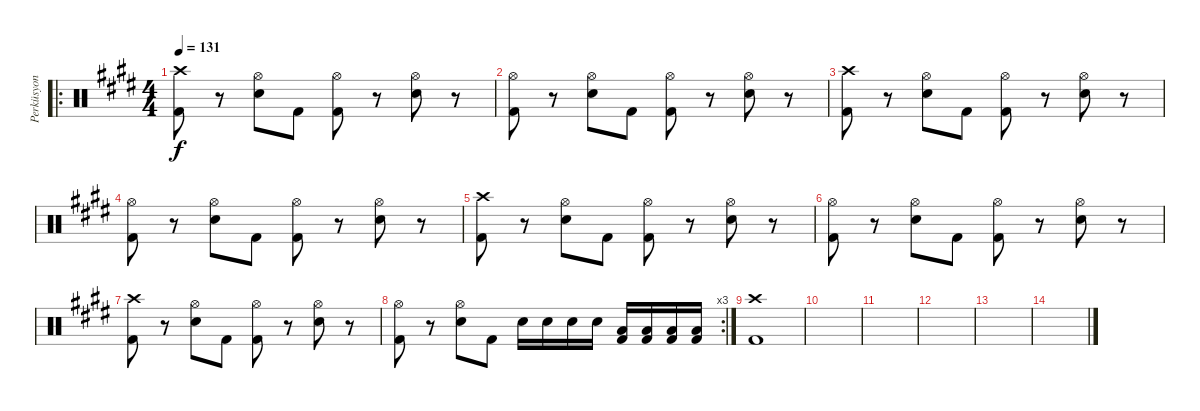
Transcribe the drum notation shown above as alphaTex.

\track ("Perküsyon" "Perküsyon") {instrument percussion}
\staff {score}
\articulation defaults
\ro
\ts (4 4)
\tempo 131
\clef neutral
\ks e
("Crash high (hit)" "Kick (hit) 2").8{dy f} r.8 ("Hi-Hat (open)" "Snare (hit) 2").8 "Kick (hit) 2".8 ("Hi-Hat (open)" "Kick (hit) 2").8 r.8 ("Hi-Hat (open)" "Snare (hit) 2").8 r.8 |
\ks c#minor
("Hi-Hat (open)" "Kick (hit) 2").8 r.8 ("Hi-Hat (open)" "Snare (hit) 2").8 "Kick (hit) 2".8 ("Hi-Hat (open)" "Kick (hit) 2").8 r.8 ("Hi-Hat (open)" "Snare (hit) 2").8 r.8 |
\ks e
("Crash high (hit)" "Kick (hit) 2").8 r.8 ("Hi-Hat (open)" "Snare (hit) 2").8 "Kick (hit) 2".8 ("Hi-Hat (open)" "Kick (hit) 2").8 r.8 ("Hi-Hat (open)" "Snare (hit) 2").8 r.8 |
\ks c#minor
("Hi-Hat (open)" "Kick (hit) 2").8 r.8 ("Hi-Hat (open)" "Snare (hit) 2").8 "Kick (hit) 2".8 ("Hi-Hat (open)" "Kick (hit) 2").8 r.8 ("Hi-Hat (open)" "Snare (hit) 2").8 r.8 |
\ks e
("Crash high (hit)" "Kick (hit) 2").8 r.8 ("Hi-Hat (open)" "Snare (hit) 2").8 "Kick (hit) 2".8 ("Hi-Hat (open)" "Kick (hit) 2").8 r.8 ("Hi-Hat (open)" "Snare (hit) 2").8 r.8 |
\ks c#minor
("Hi-Hat (open)" "Kick (hit) 2").8 r.8 ("Hi-Hat (open)" "Snare (hit) 2").8 "Kick (hit) 2".8 ("Hi-Hat (open)" "Kick (hit) 2").8 r.8 ("Hi-Hat (open)" "Snare (hit) 2").8 r.8 |
\ks e
("Crash high (hit)" "Kick (hit) 2").8 r.8 ("Hi-Hat (open)" "Snare (hit) 2").8 "Kick (hit) 2".8 ("Hi-Hat (open)" "Kick (hit) 2").8 r.8 ("Hi-Hat (open)" "Snare (hit) 2").8 r.8 |
\rc 3
\ks c#minor
("Hi-Hat (open)" "Kick (hit) 2").8 r.8 ("Hi-Hat (open)" "Snare (hit) 2").8 "Kick (hit) 2".8 "Snare (hit) 2".16 "Snare (hit) 2".16 "Snare (hit) 2".16 "Snare (hit) 2".16 ("Low Tom (hit)" "Kick (hit) 2").16 ("Low Tom (hit)" "Kick (hit) 2").16 ("Low Tom (hit)" "Kick (hit) 2").16 ("Low Tom (hit)" "Kick (hit) 2").16 |
\ks e
("Crash high (hit)" "Kick (hit) 2").1 |
\ks c#minor
|
|
|
\ks e
|
\ks c#minor
